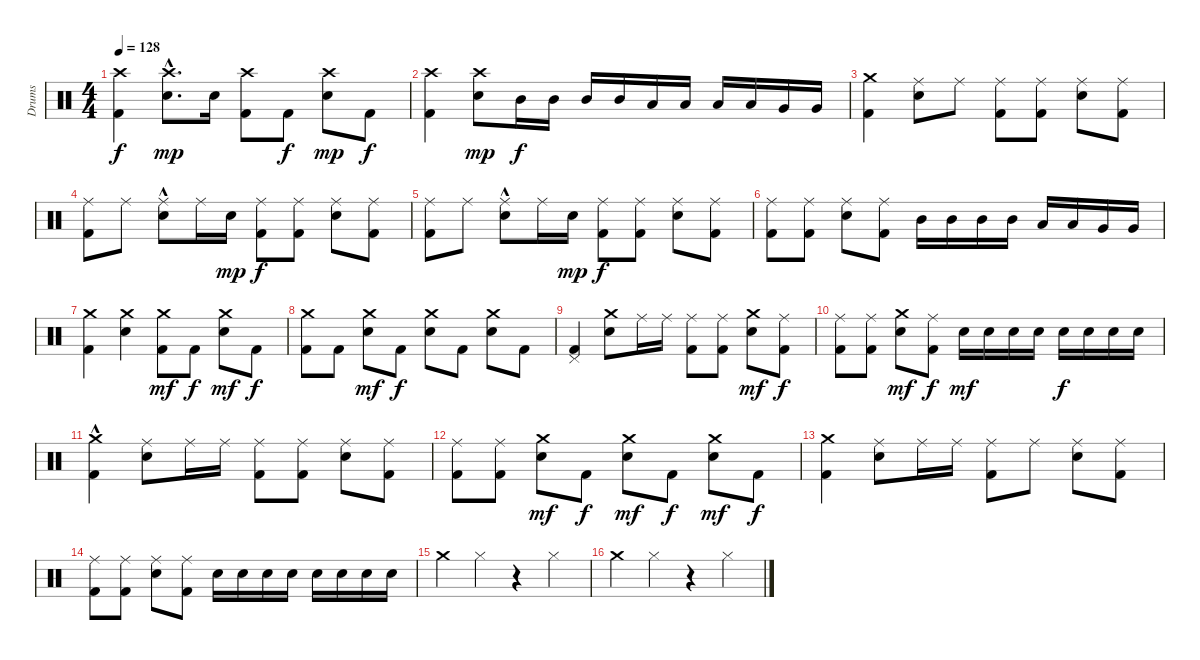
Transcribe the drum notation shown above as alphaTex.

\track ("Drums" "Drums") {instrument percussion}
\staff {score}
\articulation defaults
\ts (4 4)
\tempo 128
\clef neutral
\ks c
("Crash high (hit)" "Kick (hit) 2").4{dy f} ("Crash high (hit)"{hac} "Snare (hit) 2").8{d dy mp} "Snare (hit) 2".16 ("Crash high (hit)" "Kick (hit) 2").8 "Kick (hit) 2".8{dy f} ("Crash high (hit)" "Snare (hit) 2").8{dy mp} "Kick (hit) 2".8{dy f} |
("Crash high (hit)" "Kick (hit) 2").4 ("Crash high (hit)" "Snare (hit) 2").8{dy mp} "Mid Tom (hit)".16{dy f} "Mid Tom (hit)".16 "Mid Tom (hit)".16 "Mid Tom (hit)".16 "Low Tom (hit)".16 "Low Tom (hit)".16 "Low Tom (hit)".16 "Low Tom (hit)".16 "Very Low Tom (hit)".16 "Very Low Tom (hit)".16 |
("Crash medium (hit)" "Kick (hit) 2").4 ("Ride (middle)" "Snare (hit) 2").8 "Ride (middle)".8 ("Ride (middle)" "Kick (hit) 2").8 ("Ride (middle)" "Kick (hit) 2").8 ("Ride (middle)" "Snare (hit) 2").8 ("Ride (middle)" "Kick (hit) 2").8 |
("Ride (middle)" "Kick (hit) 2").8 "Ride (middle)".8 ("Ride (middle)" "Snare (hit) 2"{hac}).8 "Ride (middle)".16 "Snare (hit) 2".16{dy mp} ("Ride (middle)" "Kick (hit) 2").8{dy f} ("Ride (middle)" "Kick (hit) 2").8 ("Ride (middle)" "Snare (hit) 2").8 ("Ride (middle)" "Kick (hit) 2").8 |
("Ride (middle)" "Kick (hit) 2").8 "Ride (middle)".8 ("Ride (middle)" "Snare (hit) 2"{hac}).8 "Ride (middle)".16 "Snare (hit) 2".16{dy mp} ("Ride (middle)" "Kick (hit) 2").8{dy f} ("Ride (middle)" "Kick (hit) 2").8 ("Ride (middle)" "Snare (hit) 2").8 ("Ride (middle)" "Kick (hit) 2").8 |
("Ride (middle)" "Kick (hit) 2").8 ("Ride (middle)" "Kick (hit) 2").8 ("Ride (middle)" "Snare (hit) 2").8 ("Ride (middle)" "Kick (hit) 2").8 "Mid Tom (hit)".16 "Mid Tom (hit)".16 "Mid Tom (hit)".16 "Mid Tom (hit)".16 "Low Tom (hit)".16 "Low Tom (hit)".16 "Very Low Tom (hit)".16 "Very Low Tom (hit)".16 |
("Crash medium (hit)" "Kick (hit) 2").4 ("Crash medium (hit)" "Snare (hit) 2").4 ("Crash medium (hit)" "Kick (hit) 2").8{dy mf} "Kick (hit) 2".8{dy f} ("Crash medium (hit)" "Snare (hit) 2").8{dy mf} "Kick (hit) 2".8{dy f} |
("Crash medium (hit)" "Kick (hit) 2").8 "Kick (hit) 2".8 ("Crash medium (hit)" "Snare (hit) 2").8{dy mf} "Kick (hit) 2".8{dy f} ("Crash medium (hit)" "Snare (hit) 2").8 "Kick (hit) 2".8 ("Crash medium (hit)" "Snare (hit) 2").8 "Kick (hit) 2".8 |
("Pedal Hi-Hat (hit)" "Kick (hit) 2").4 ("Crash medium (hit)" "Snare (hit) 2").8 "Ride (middle)".16 "Ride (middle)".16 ("Ride (middle)" "Kick (hit) 2").8 ("Ride (middle)" "Kick (hit) 2").8 ("Crash medium (hit)" "Snare (hit) 2").8{dy mf} ("Ride (middle)" "Kick (hit) 2").8{dy f} |
("Ride (middle)" "Kick (hit) 2").8 ("Ride (middle)" "Kick (hit) 2").8 ("Crash medium (hit)" "Snare (hit) 2").8{dy mf} ("Ride (middle)" "Kick (hit) 2").8{dy f} "Snare (hit) 2".16{dy mf} "Snare (hit) 2".16 "Snare (hit) 2".16 "Snare (hit) 2".16 "Snare (hit) 2".16{dy f} "Snare (hit) 2".16 "Snare (hit) 2".16 "Snare (hit) 2".16 |
("Crash medium (hit)"{hac} "Kick (hit) 2").4 ("Ride (middle)" "Snare (hit) 2").8 "Ride (middle)".16 "Ride (middle)".16 ("Ride (middle)" "Kick (hit) 2").8 ("Ride (middle)" "Kick (hit) 2").8 ("Ride (middle)" "Snare (hit) 2").8 ("Ride (middle)" "Kick (hit) 2").8 |
("Ride (middle)" "Kick (hit) 2").8 ("Ride (middle)" "Kick (hit) 2").8 ("Crash medium (hit)" "Snare (hit) 2").8{dy mf} "Kick (hit) 2".8{dy f} ("Crash medium (hit)" "Snare (hit) 2").8{dy mf} "Kick (hit) 2".8{dy f} ("Crash medium (hit)" "Snare (hit) 2").8{dy mf} "Kick (hit) 2".8{dy f} |
("Crash medium (hit)" "Kick (hit) 2").4 ("Ride (middle)" "Snare (hit) 2").8 "Ride (middle)".16 "Ride (middle)".16 ("Ride (middle)" "Kick (hit) 2").8 "Ride (middle)".8 ("Ride (middle)" "Snare (hit) 2").8 ("Ride (middle)" "Kick (hit) 2").8 |
("Ride (middle)" "Kick (hit) 2").8 ("Ride (middle)" "Kick (hit) 2").8 ("Ride (middle)" "Snare (hit) 2").8 ("Ride (middle)" "Kick (hit) 2").8 "Snare (hit) 2".16 "Snare (hit) 2".16 "Snare (hit) 2".16 "Snare (hit) 2".16 "Snare (hit) 2".16 "Snare (hit) 2".16 "Snare (hit) 2".16 "Snare (hit) 2".16 |
"Crash medium (hit)".4 "Hi-Hat (closed)".4 r.4 "Hi-Hat (closed)".4 |
"Crash medium (hit)".4 "Hi-Hat (closed)".4 r.4 "Hi-Hat (closed)".4
